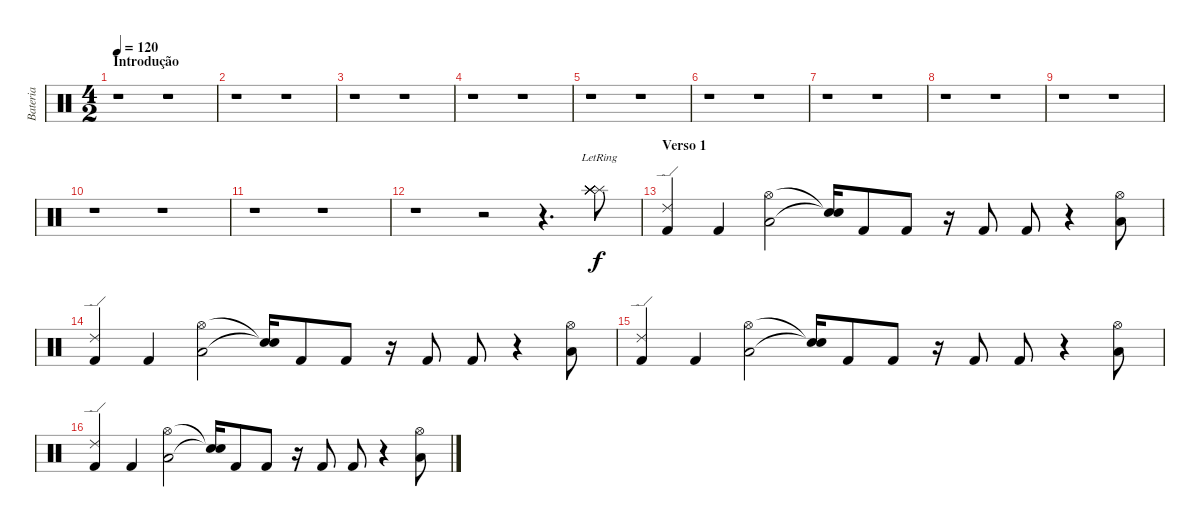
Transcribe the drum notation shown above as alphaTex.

\track ("Bateria" "Bateria") {instrument percussion}
\staff {score}
\articulation defaults
\ts (4 2)
\section ("" "Introdução")
\tempo 120
\clef neutral
\ks c
r.1{dy f} r.1 |
r.1 r.1 |
r.1 r.1 |
r.1 r.1 |
r.1 r.1 |
r.1 r.1 |
r.1 r.1 |
r.1 r.1 |
r.1 r.1 |
r.1 r.1 |
r.1 r.1 |
r.1 r.2 r.4{d} ("Splash (hit)"{lr} "Splash (hit)"{lr} "Splash (hit)"{lr} "Splash (hit)"{lr} "Splash (hit)"{lr} "Splash (hit)"{lr}).8 |
\section ("" "Verso 1")
("Kick (hit) 2" "Ride (edge) 2").4 "Kick (hit) 2".4 ("Low Tom (hit)" "Hi-Hat (open)").2 ("Snare (hit)"{t} "Snare (hit)"{t}).16 "Kick (hit) 2".8 "Kick (hit) 2".8 r.16 "Kick (hit) 2".8 "Kick (hit) 2".8 r.4 ("Low Tom (hit)" "Hi-Hat (open)").8 |
("Kick (hit) 2" "Ride (edge) 2").4 "Kick (hit) 2".4 ("Low Tom (hit)" "Hi-Hat (open)").2 ("Snare (hit)"{t} "Snare (hit)"{t}).16 "Kick (hit) 2".8 "Kick (hit) 2".8 r.16 "Kick (hit) 2".8 "Kick (hit) 2".8 r.4 ("Low Tom (hit)" "Hi-Hat (open)").8 |
("Kick (hit) 2" "Ride (edge) 2").4 "Kick (hit) 2".4 ("Low Tom (hit)" "Hi-Hat (open)").2 ("Snare (hit)"{t} "Snare (hit)"{t}).16 "Kick (hit) 2".8 "Kick (hit) 2".8 r.16 "Kick (hit) 2".8 "Kick (hit) 2".8 r.4 ("Low Tom (hit)" "Hi-Hat (open)").8 |
("Kick (hit) 2" "Ride (edge) 2").4 "Kick (hit) 2".4 ("Low Tom (hit)" "Hi-Hat (open)").2 ("Snare (hit)"{t} "Snare (hit)"{t}).16 "Kick (hit) 2".8 "Kick (hit) 2".8 r.16 "Kick (hit) 2".8 "Kick (hit) 2".8 r.4 ("Low Tom (hit)" "Hi-Hat (open)").8
